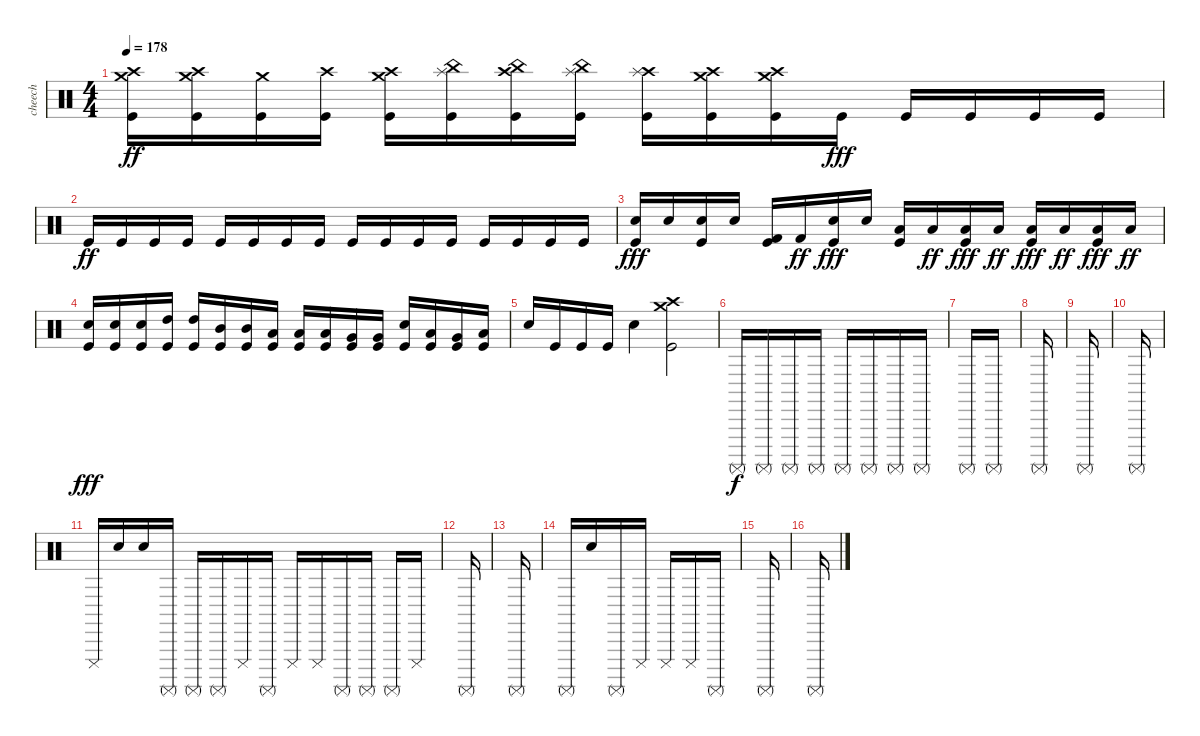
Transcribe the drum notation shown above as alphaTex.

\track ("cheech" "cheech") {solo instrument percussion}
\staff {score}
\articulation defaults
\ts (4 4)
\tempo 178
\clef neutral
\ks c
("Crash medium (hit)" "Crash high (hit)" "Kick (hit)").16{dy ff} ("Crash high (hit)" "Crash medium (hit)" "Kick (hit)").16 ("Crash medium (hit)" "Kick (hit)").16 ("Crash high (hit)" "Kick (hit)").16 ("Crash medium (hit)" "Crash high (hit)" "Kick (hit)").16 ("China (hit)" "Splash (hit)" "Kick (hit)").16 ("Crash high (hit)" "China (hit)" "Kick (hit)").16 ("Splash (hit)" "China (hit)" "Kick (hit)").16 ("Crash high (hit)" "Splash (hit)" "Kick (hit)").16 ("Crash medium (hit)" "Crash high (hit)" "Kick (hit)").16 ("Crash medium (hit)" "Crash high (hit)" "Kick (hit)").16 "Kick (hit)".16{dy fff} "Kick (hit)".16 "Kick (hit)".16 "Kick (hit)".16 "Kick (hit)".16 |
"Kick (hit)".16{dy ff} "Kick (hit)".16 "Kick (hit)".16 "Kick (hit)".16 "Kick (hit)".16 "Kick (hit)".16 "Kick (hit)".16 "Kick (hit)".16 "Kick (hit)".16 "Kick (hit)".16 "Kick (hit)".16 "Kick (hit)".16 "Kick (hit)".16 "Kick (hit)".16 "Kick (hit)".16 "Kick (hit)".16 |
("Electric Snare (hit)" "Kick (hit)").16{dy fff} "Electric Snare (hit)".16 ("Electric Snare (hit)" "Kick (hit)").16 "Electric Snare (hit)".16 ("Kick (hit) 2" "Kick (hit)").16 "Kick (hit) 2".16{dy ff} ("Electric Snare (hit)" "Kick (hit)").16{dy fff} "Electric Snare (hit)".16 ("Low Tom (hit)" "Kick (hit)").16 "Low Tom (hit)".16{dy ff} ("Low Tom (hit)" "Kick (hit)").16{dy fff} "Low Tom (hit)".16{dy ff} ("Low Floor Tom (hit)" "Kick (hit)").16{dy fff} "Low Floor Tom (hit)".16{dy ff} ("Low Floor Tom (hit)" "Kick (hit)").16{dy fff} "Low Floor Tom (hit)".16{dy ff} |
("Electric Snare (hit)" "Kick (hit)").16{dy fff} ("Electric Snare (hit)" "Kick (hit)").16 ("Electric Snare (hit)" "Kick (hit)").16 ("High Tom (hit)" "Kick (hit)").16 ("High Tom (hit)" "Kick (hit)").16 ("Mid Tom (hit)" "Kick (hit)").16 ("Mid Tom (hit)" "Kick (hit)").16 ("Low Tom (hit)" "Kick (hit)").16 ("Low Tom (hit)" "Kick (hit)").16 ("Low Tom (hit)" "Kick (hit)").16 ("Very Low Tom (hit)" "Kick (hit)").16 ("Very Low Tom (hit)" "Kick (hit)").16 ("Electric Snare (hit)" "Kick (hit)").16 ("Low Tom (hit)" "Kick (hit)").16 ("Very Low Tom (hit)" "Kick (hit)").16 ("Low Floor Tom (hit)" "Kick (hit)").16 |
"Electric Snare (hit)".16 "Kick (hit)".16 "Kick (hit)".16 "Kick (hit)".16 "Electric Snare (hit)".4 ("Crash high (hit)" "Crash medium (hit)" "Kick (hit)").2 |
"Surdo (mute)".16{dy f} "Surdo (mute)".16 "Surdo (mute)".16 "Surdo (mute)".16 "Surdo (mute)".16 "Surdo (mute)".16 "Surdo (mute)".16 "Surdo (mute)".16 |
"Surdo (mute)".16 "Surdo (mute)".16 |
"Surdo (mute)".16 |
"Surdo (mute)".16 |
"Surdo (mute)".16 |
"Cuica (mute)".16 "Snare (hit)".16 "Snare (hit)".16 "Surdo (mute)".16 "Surdo (mute)".16 "Surdo (mute)".16 "Cuica (mute)".16 "Surdo (mute)".16 "Cuica (mute)".16 "Cuica (mute)".16 "Surdo (mute)".16 "Surdo (mute)".16 "Surdo (mute)".16 "Cuica (mute)".16 |
"Surdo (mute)".16 |
"Surdo (mute)".16 |
"Surdo (mute)".16 "Snare (hit)".16 "Surdo (mute)".16 "Cuica (mute)".16 "Cuica (mute)".16 "Cuica (mute)".16 "Surdo (mute)".16 |
"Surdo (mute)".16 |
"Surdo (mute)".16
